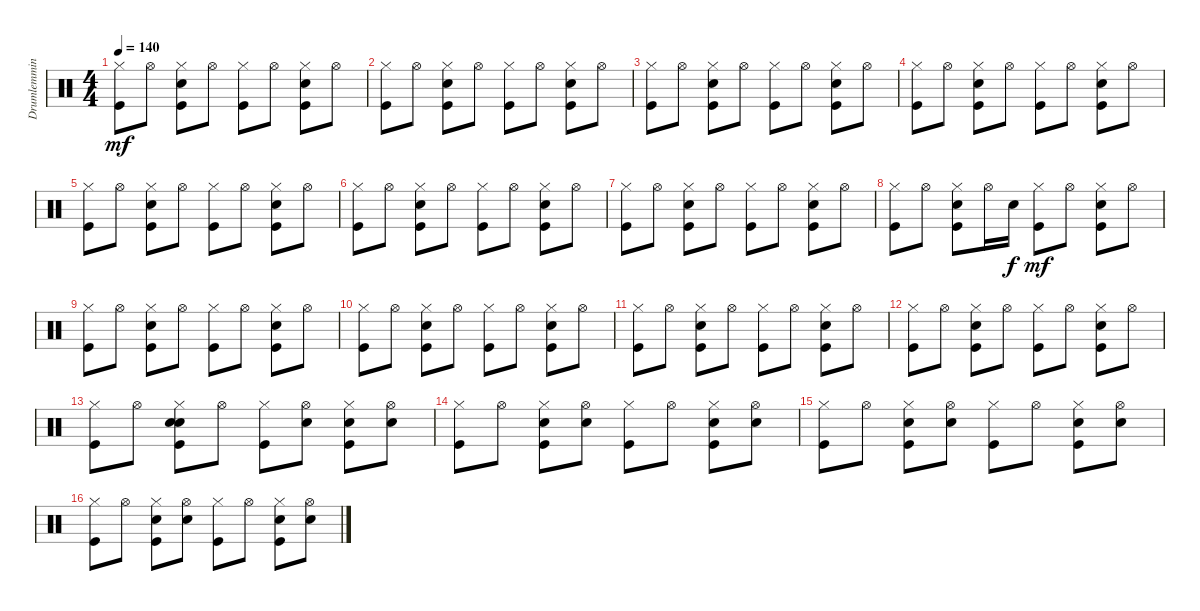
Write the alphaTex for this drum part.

\track ("Drumlemming" "Drumlemmin") {instrument percussion}
\staff {score}
\articulation defaults
\ts (4 4)
\tempo 140
\clef neutral
\ks c
("Hi-Hat (closed)" "Kick (hit)").8{dy mf} "Hi-Hat (open)".8 ("Hi-Hat (closed)" "Hand Clap (hit)" "Kick (hit)").8 "Hi-Hat (open)".8 ("Hi-Hat (closed)" "Kick (hit)").8 "Hi-Hat (open)".8 ("Hi-Hat (closed)" "Hand Clap (hit)" "Kick (hit)").8 "Hi-Hat (open)".8 |
("Hi-Hat (closed)" "Kick (hit)").8 "Hi-Hat (open)".8 ("Hi-Hat (closed)" "Hand Clap (hit)" "Kick (hit)").8 "Hi-Hat (open)".8 ("Hi-Hat (closed)" "Kick (hit)").8 "Hi-Hat (open)".8 ("Hi-Hat (closed)" "Hand Clap (hit)" "Kick (hit)").8 "Hi-Hat (open)".8 |
("Hi-Hat (closed)" "Kick (hit)").8 "Hi-Hat (open)".8 ("Hi-Hat (closed)" "Hand Clap (hit)" "Kick (hit)").8 "Hi-Hat (open)".8 ("Hi-Hat (closed)" "Kick (hit)").8 "Hi-Hat (open)".8 ("Hi-Hat (closed)" "Hand Clap (hit)" "Kick (hit)").8 "Hi-Hat (open)".8 |
("Hi-Hat (closed)" "Kick (hit)").8 "Hi-Hat (open)".8 ("Hi-Hat (closed)" "Hand Clap (hit)" "Kick (hit)").8 "Hi-Hat (open)".8 ("Hi-Hat (closed)" "Kick (hit)").8 "Hi-Hat (open)".8 ("Hi-Hat (closed)" "Hand Clap (hit)" "Kick (hit)").8 "Hi-Hat (open)".8 |
("Hi-Hat (closed)" "Kick (hit)").8 "Hi-Hat (open)".8 ("Hi-Hat (closed)" "Hand Clap (hit)" "Kick (hit)").8 "Hi-Hat (open)".8 ("Hi-Hat (closed)" "Kick (hit)").8 "Hi-Hat (open)".8 ("Hi-Hat (closed)" "Hand Clap (hit)" "Kick (hit)").8 "Hi-Hat (open)".8 |
("Hi-Hat (closed)" "Kick (hit)").8 "Hi-Hat (open)".8 ("Hi-Hat (closed)" "Hand Clap (hit)" "Kick (hit)").8 "Hi-Hat (open)".8 ("Hi-Hat (closed)" "Kick (hit)").8 "Hi-Hat (open)".8 ("Hi-Hat (closed)" "Hand Clap (hit)" "Kick (hit)").8 "Hi-Hat (open)".8 |
("Hi-Hat (closed)" "Kick (hit)").8 "Hi-Hat (open)".8 ("Hi-Hat (closed)" "Hand Clap (hit)" "Kick (hit)").8 "Hi-Hat (open)".8 ("Hi-Hat (closed)" "Kick (hit)").8 "Hi-Hat (open)".8 ("Hi-Hat (closed)" "Hand Clap (hit)" "Kick (hit)").8 "Hi-Hat (open)".8 |
("Hi-Hat (closed)" "Kick (hit)").8 "Hi-Hat (open)".8 ("Hi-Hat (closed)" "Hand Clap (hit)" "Kick (hit)").8 "Hi-Hat (open)".16 "Hand Clap (hit)".16{dy f} ("Hi-Hat (closed)" "Kick (hit)").8{dy mf} "Hi-Hat (open)".8 ("Hi-Hat (closed)" "Hand Clap (hit)" "Kick (hit)").8 "Hi-Hat (open)".8 |
("Hi-Hat (closed)" "Kick (hit)").8 "Hi-Hat (open)".8 ("Hi-Hat (closed)" "Hand Clap (hit)" "Kick (hit)").8 "Hi-Hat (open)".8 ("Hi-Hat (closed)" "Kick (hit)").8 "Hi-Hat (open)".8 ("Hi-Hat (closed)" "Hand Clap (hit)" "Kick (hit)").8 "Hi-Hat (open)".8 |
("Hi-Hat (closed)" "Kick (hit)").8 "Hi-Hat (open)".8 ("Hi-Hat (closed)" "Hand Clap (hit)" "Kick (hit)").8 "Hi-Hat (open)".8 ("Hi-Hat (closed)" "Kick (hit)").8 "Hi-Hat (open)".8 ("Hi-Hat (closed)" "Hand Clap (hit)" "Kick (hit)").8 "Hi-Hat (open)".8 |
("Hi-Hat (closed)" "Kick (hit)").8 "Hi-Hat (open)".8 ("Hi-Hat (closed)" "Hand Clap (hit)" "Kick (hit)").8 "Hi-Hat (open)".8 ("Hi-Hat (closed)" "Kick (hit)").8 "Hi-Hat (open)".8 ("Hi-Hat (closed)" "Hand Clap (hit)" "Kick (hit)").8 "Hi-Hat (open)".8 |
("Hi-Hat (closed)" "Kick (hit)").8 "Hi-Hat (open)".8 ("Hi-Hat (closed)" "Hand Clap (hit)" "Kick (hit)").8 "Hi-Hat (open)".8 ("Hi-Hat (closed)" "Kick (hit)").8 "Hi-Hat (open)".8 ("Hi-Hat (closed)" "Hand Clap (hit)" "Kick (hit)").8 "Hi-Hat (open)".8 |
("Hi-Hat (closed)" "Kick (hit)").8 "Hi-Hat (open)".8 ("Hi-Hat (closed)" "Hand Clap (hit)" "Snare (hit) 2" "Kick (hit)").8 "Hi-Hat (open)".8 ("Hi-Hat (closed)" "Kick (hit)").8 ("Hi-Hat (open)" "Snare (hit) 2").8 ("Hi-Hat (closed)" "Hand Clap (hit)" "Kick (hit)").8 ("Hi-Hat (open)" "Snare (hit) 2").8 |
("Hi-Hat (closed)" "Kick (hit)").8 "Hi-Hat (open)".8 ("Hi-Hat (closed)" "Hand Clap (hit)" "Kick (hit)").8 ("Hi-Hat (open)" "Snare (hit) 2").8 ("Hi-Hat (closed)" "Kick (hit)").8 "Hi-Hat (open)".8 ("Hi-Hat (closed)" "Hand Clap (hit)" "Kick (hit)").8 ("Hi-Hat (open)" "Snare (hit) 2").8 |
("Hi-Hat (closed)" "Kick (hit)").8 "Hi-Hat (open)".8 ("Hi-Hat (closed)" "Hand Clap (hit)" "Kick (hit)").8 ("Hi-Hat (open)" "Snare (hit) 2").8 ("Hi-Hat (closed)" "Kick (hit)").8 "Hi-Hat (open)".8 ("Hi-Hat (closed)" "Hand Clap (hit)" "Kick (hit)").8 ("Hi-Hat (open)" "Snare (hit) 2").8 |
("Hi-Hat (closed)" "Kick (hit)").8 "Hi-Hat (open)".8 ("Hi-Hat (closed)" "Hand Clap (hit)" "Kick (hit)").8 ("Hi-Hat (open)" "Snare (hit) 2").8 ("Hi-Hat (closed)" "Kick (hit)").8 "Hi-Hat (open)".8 ("Hi-Hat (closed)" "Hand Clap (hit)" "Kick (hit)").8 ("Hi-Hat (open)" "Snare (hit) 2").8
